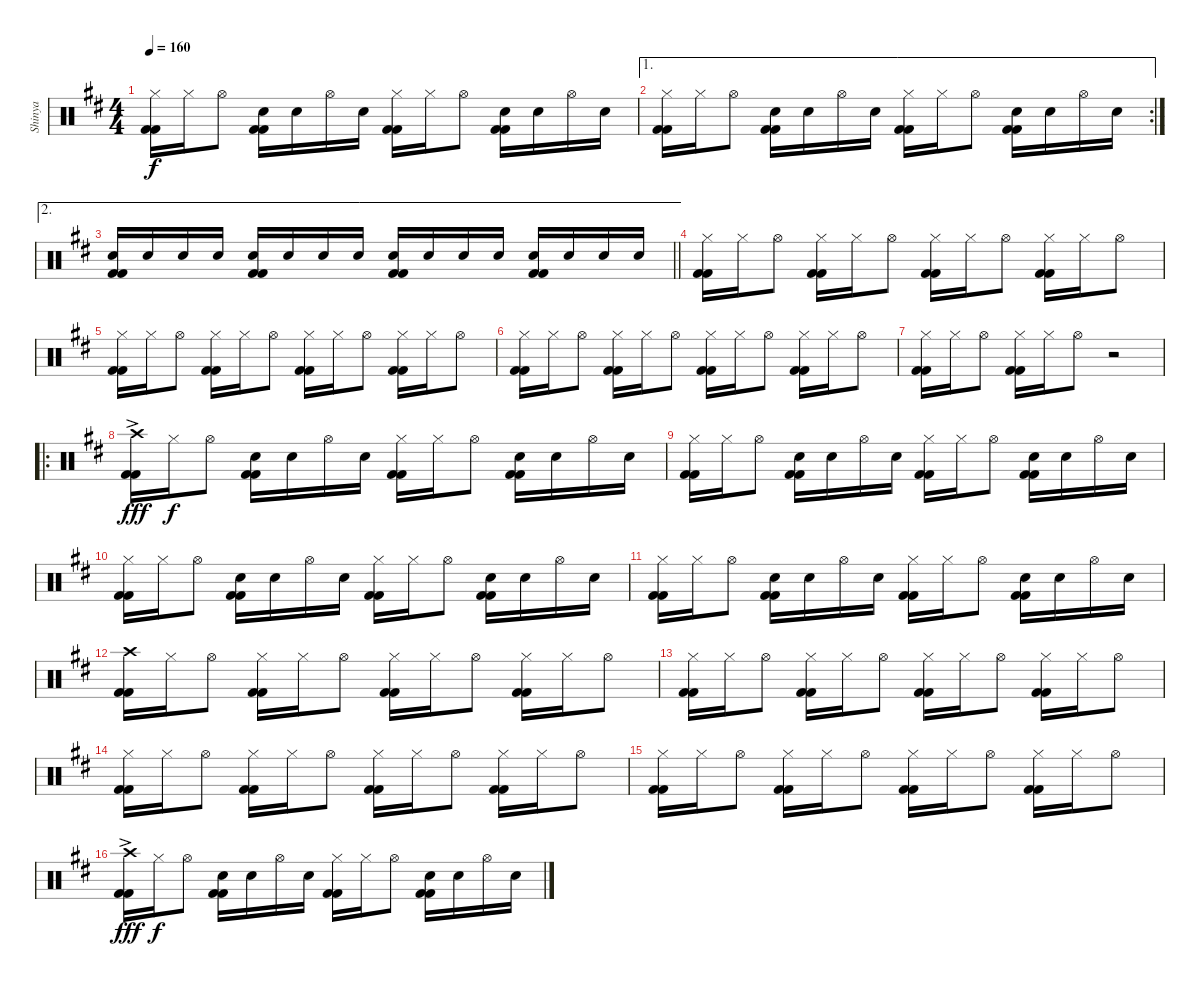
\track ("Shinya " "Shinya ") {instrument percussion}
\staff {score}
\articulation defaults
\ts (4 4)
\tempo 160
\clef neutral
\ks d
("Hi-Hat (closed)" "Kick (hit) 2" "Kick (hit) 2").16{dy f} "Hi-Hat (closed)".16 "Hi-Hat (open)".8 ("Snare (hit) 2" "Kick (hit) 2" "Kick (hit) 2").16 "Snare (hit) 2".16 "Hi-Hat (open)".16 "Snare (hit) 2".16 ("Hi-Hat (closed)" "Kick (hit) 2" "Kick (hit) 2").16 "Hi-Hat (closed)".16 "Hi-Hat (open)".8 ("Snare (hit) 2" "Kick (hit) 2" "Kick (hit) 2").16 "Snare (hit) 2".16 "Hi-Hat (open)".16 "Snare (hit) 2".16 |
\ae 1
\rc 2
("Hi-Hat (closed)" "Kick (hit) 2" "Kick (hit) 2").16 "Hi-Hat (closed)".16 "Hi-Hat (open)".8 ("Snare (hit) 2" "Kick (hit) 2" "Kick (hit) 2").16 "Snare (hit) 2".16 "Hi-Hat (open)".16 "Snare (hit) 2".16 ("Hi-Hat (closed)" "Kick (hit) 2" "Kick (hit) 2").16 "Hi-Hat (closed)".16 "Hi-Hat (open)".8 ("Snare (hit) 2" "Kick (hit) 2" "Kick (hit) 2").16 "Snare (hit) 2".16 "Hi-Hat (open)".16 "Snare (hit) 2".16 |
\ae 2
\barLineRight lightlight
("Snare (hit) 2" "Kick (hit) 2" "Kick (hit) 2").16 "Snare (hit) 2".16 "Snare (hit) 2".16 "Snare (hit) 2".16 ("Snare (hit) 2" "Kick (hit) 2" "Kick (hit) 2").16 "Snare (hit) 2".16 "Snare (hit) 2".16 "Snare (hit) 2".16 ("Snare (hit) 2" "Kick (hit) 2" "Kick (hit) 2").16 "Snare (hit) 2".16 "Snare (hit) 2".16 "Snare (hit) 2".16 ("Snare (hit) 2" "Kick (hit) 2" "Kick (hit) 2").16 "Snare (hit) 2".16 "Snare (hit) 2".16 "Snare (hit) 2".16 |
("Hi-Hat (closed)" "Kick (hit) 2" "Kick (hit) 2").16 "Hi-Hat (closed)".16 "Hi-Hat (open)".8 ("Hi-Hat (closed)" "Kick (hit) 2" "Kick (hit) 2").16 "Hi-Hat (closed)".16 "Hi-Hat (open)".8 ("Hi-Hat (closed)" "Kick (hit) 2" "Kick (hit) 2").16 "Hi-Hat (closed)".16 "Hi-Hat (open)".8 ("Hi-Hat (closed)" "Kick (hit) 2" "Kick (hit) 2").16 "Hi-Hat (closed)".16 "Hi-Hat (open)".8 |
("Hi-Hat (closed)" "Kick (hit) 2" "Kick (hit) 2").16 "Hi-Hat (closed)".16 "Hi-Hat (open)".8 ("Hi-Hat (closed)" "Kick (hit) 2" "Kick (hit) 2").16 "Hi-Hat (closed)".16 "Hi-Hat (open)".8 ("Hi-Hat (closed)" "Kick (hit) 2" "Kick (hit) 2").16 "Hi-Hat (closed)".16 "Hi-Hat (open)".8 ("Hi-Hat (closed)" "Kick (hit) 2" "Kick (hit) 2").16 "Hi-Hat (closed)".16 "Hi-Hat (open)".8 |
("Hi-Hat (closed)" "Kick (hit) 2" "Kick (hit) 2").16 "Hi-Hat (closed)".16 "Hi-Hat (open)".8 ("Hi-Hat (closed)" "Kick (hit) 2" "Kick (hit) 2").16 "Hi-Hat (closed)".16 "Hi-Hat (open)".8 ("Hi-Hat (closed)" "Kick (hit) 2" "Kick (hit) 2").16 "Hi-Hat (closed)".16 "Hi-Hat (open)".8 ("Hi-Hat (closed)" "Kick (hit) 2" "Kick (hit) 2").16 "Hi-Hat (closed)".16 "Hi-Hat (open)".8 |
("Hi-Hat (closed)" "Kick (hit) 2" "Kick (hit) 2").16 "Hi-Hat (closed)".16 "Hi-Hat (open)".8 ("Hi-Hat (closed)" "Kick (hit) 2" "Kick (hit) 2").16 "Hi-Hat (closed)".16 "Hi-Hat (open)".8 r.2 |
\ro
("Crash high (hit)"{ac} "Kick (hit) 2" "Kick (hit) 2").16{dy fff} "Hi-Hat (closed)".16{dy f} "Hi-Hat (open)".8 ("Snare (hit) 2" "Kick (hit) 2" "Kick (hit) 2").16 "Snare (hit) 2".16 "Hi-Hat (open)".16 "Snare (hit) 2".16 ("Hi-Hat (closed)" "Kick (hit) 2" "Kick (hit) 2").16 "Hi-Hat (closed)".16 "Hi-Hat (open)".8 ("Snare (hit) 2" "Kick (hit) 2" "Kick (hit) 2").16 "Snare (hit) 2".16 "Hi-Hat (open)".16 "Snare (hit) 2".16 |
("Hi-Hat (closed)" "Kick (hit) 2" "Kick (hit) 2").16 "Hi-Hat (closed)".16 "Hi-Hat (open)".8 ("Snare (hit) 2" "Kick (hit) 2" "Kick (hit) 2").16 "Snare (hit) 2".16 "Hi-Hat (open)".16 "Snare (hit) 2".16 ("Hi-Hat (closed)" "Kick (hit) 2" "Kick (hit) 2").16 "Hi-Hat (closed)".16 "Hi-Hat (open)".8 ("Snare (hit) 2" "Kick (hit) 2" "Kick (hit) 2").16 "Snare (hit) 2".16 "Hi-Hat (open)".16 "Snare (hit) 2".16 |
("Hi-Hat (closed)" "Kick (hit) 2" "Kick (hit) 2").16 "Hi-Hat (closed)".16 "Hi-Hat (open)".8 ("Snare (hit) 2" "Kick (hit) 2" "Kick (hit) 2").16 "Snare (hit) 2".16 "Hi-Hat (open)".16 "Snare (hit) 2".16 ("Hi-Hat (closed)" "Kick (hit) 2" "Kick (hit) 2").16 "Hi-Hat (closed)".16 "Hi-Hat (open)".8 ("Snare (hit) 2" "Kick (hit) 2" "Kick (hit) 2").16 "Snare (hit) 2".16 "Hi-Hat (open)".16 "Snare (hit) 2".16 |
("Hi-Hat (closed)" "Kick (hit) 2" "Kick (hit) 2").16 "Hi-Hat (closed)".16 "Hi-Hat (open)".8 ("Snare (hit) 2" "Kick (hit) 2" "Kick (hit) 2").16 "Snare (hit) 2".16 "Hi-Hat (open)".16 "Snare (hit) 2".16 ("Hi-Hat (closed)" "Kick (hit) 2" "Kick (hit) 2").16 "Hi-Hat (closed)".16 "Hi-Hat (open)".8 ("Snare (hit) 2" "Kick (hit) 2" "Kick (hit) 2").16 "Snare (hit) 2".16 "Hi-Hat (open)".16 "Snare (hit) 2".16 |
("Crash high (hit)" "Kick (hit) 2" "Kick (hit) 2").16 "Hi-Hat (closed)".16 "Hi-Hat (open)".8 ("Hi-Hat (closed)" "Kick (hit) 2" "Kick (hit) 2").16 "Hi-Hat (closed)".16 "Hi-Hat (open)".8 ("Hi-Hat (closed)" "Kick (hit) 2" "Kick (hit) 2").16 "Hi-Hat (closed)".16 "Hi-Hat (open)".8 ("Hi-Hat (closed)" "Kick (hit) 2" "Kick (hit) 2").16 "Hi-Hat (closed)".16 "Hi-Hat (open)".8 |
("Hi-Hat (closed)" "Kick (hit) 2" "Kick (hit) 2").16 "Hi-Hat (closed)".16 "Hi-Hat (open)".8 ("Hi-Hat (closed)" "Kick (hit) 2" "Kick (hit) 2").16 "Hi-Hat (closed)".16 "Hi-Hat (open)".8 ("Hi-Hat (closed)" "Kick (hit) 2" "Kick (hit) 2").16 "Hi-Hat (closed)".16 "Hi-Hat (open)".8 ("Hi-Hat (closed)" "Kick (hit) 2" "Kick (hit) 2").16 "Hi-Hat (closed)".16 "Hi-Hat (open)".8 |
("Hi-Hat (closed)" "Kick (hit) 2" "Kick (hit) 2").16 "Hi-Hat (closed)".16 "Hi-Hat (open)".8 ("Hi-Hat (closed)" "Kick (hit) 2" "Kick (hit) 2").16 "Hi-Hat (closed)".16 "Hi-Hat (open)".8 ("Hi-Hat (closed)" "Kick (hit) 2" "Kick (hit) 2").16 "Hi-Hat (closed)".16 "Hi-Hat (open)".8 ("Hi-Hat (closed)" "Kick (hit) 2" "Kick (hit) 2").16 "Hi-Hat (closed)".16 "Hi-Hat (open)".8 |
("Hi-Hat (closed)" "Kick (hit) 2" "Kick (hit) 2").16 "Hi-Hat (closed)".16 "Hi-Hat (open)".8 ("Hi-Hat (closed)" "Kick (hit) 2" "Kick (hit) 2").16 "Hi-Hat (closed)".16 "Hi-Hat (open)".8 ("Hi-Hat (closed)" "Kick (hit) 2" "Kick (hit) 2").16 "Hi-Hat (closed)".16 "Hi-Hat (open)".8 ("Hi-Hat (closed)" "Kick (hit) 2" "Kick (hit) 2").16 "Hi-Hat (closed)".16 "Hi-Hat (open)".8 |
("Crash high (hit)"{ac} "Kick (hit) 2" "Kick (hit) 2").16{dy fff} "Hi-Hat (closed)".16{dy f} "Hi-Hat (open)".8 ("Snare (hit) 2" "Kick (hit) 2" "Kick (hit) 2").16 "Snare (hit) 2".16 "Hi-Hat (open)".16 "Snare (hit) 2".16 ("Hi-Hat (closed)" "Kick (hit) 2" "Kick (hit) 2").16 "Hi-Hat (closed)".16 "Hi-Hat (open)".8 ("Snare (hit) 2" "Kick (hit) 2" "Kick (hit) 2").16 "Snare (hit) 2".16 "Hi-Hat (open)".16 "Snare (hit) 2".16
